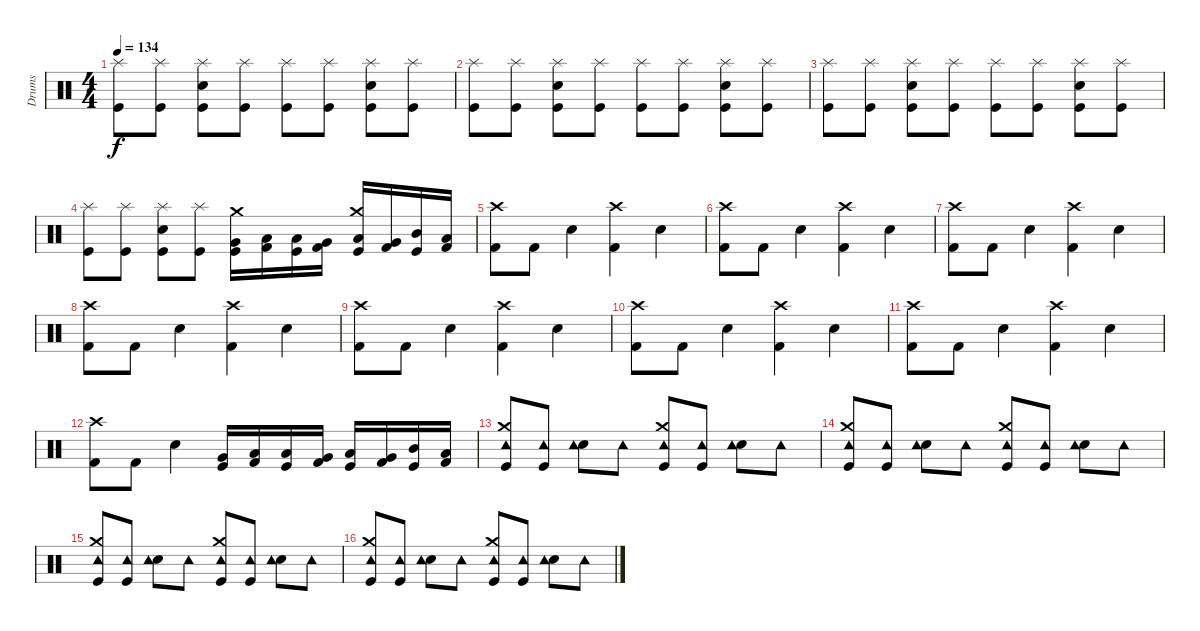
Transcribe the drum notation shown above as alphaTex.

\track ("Drums" "Drums") {instrument percussion}
\staff {score}
\articulation defaults
\ts (4 4)
\tempo 134
\clef neutral
\ks c
("Splash (hit)" "Kick (hit)").8{dy f} ("Splash (hit)" "Kick (hit)").8 ("Splash (hit)" "Kick (hit)" "Electric Snare (hit)").8 ("Splash (hit)" "Kick (hit)").8 ("Kick (hit)" "Splash (hit)").8 ("Splash (hit)" "Kick (hit)").8 ("Splash (hit)" "Kick (hit)" "Electric Snare (hit)").8 ("Splash (hit)" "Kick (hit)").8 |
("Splash (hit)" "Kick (hit)").8 ("Splash (hit)" "Kick (hit)").8 ("Splash (hit)" "Kick (hit)" "Electric Snare (hit)").8 ("Splash (hit)" "Kick (hit)").8 ("Kick (hit)" "Splash (hit)").8 ("Splash (hit)" "Kick (hit)").8 ("Splash (hit)" "Kick (hit)" "Electric Snare (hit)").8 ("Splash (hit)" "Kick (hit)").8 |
("Splash (hit)" "Kick (hit)").8 ("Splash (hit)" "Kick (hit)").8 ("Splash (hit)" "Kick (hit)" "Electric Snare (hit)").8 ("Splash (hit)" "Kick (hit)").8 ("Kick (hit)" "Splash (hit)").8 ("Splash (hit)" "Kick (hit)").8 ("Splash (hit)" "Kick (hit)" "Electric Snare (hit)").8 ("Splash (hit)" "Kick (hit)").8 |
("Splash (hit)" "Kick (hit)").8 ("Splash (hit)" "Kick (hit)").8 ("Splash (hit)" "Kick (hit)" "Electric Snare (hit)").8 ("Splash (hit)" "Kick (hit)").8 ("Very Low Tom (hit)" "Kick (hit)" "Crash medium (hit)").16 ("Kick (hit) 2" "Low Floor Tom (hit)").16 ("Kick (hit)" "Low Tom (hit)").16 ("Kick (hit) 2" "Very Low Tom (hit)").16 ("Kick (hit)" "Low Tom (hit)" "Crash medium (hit)").16 ("Kick (hit) 2" "Very Low Tom (hit)").16 ("Kick (hit)" "Mid Tom (hit)").16 ("Kick (hit) 2" "Low Tom (hit)").16 |
("Crash high (hit)" "Kick (hit) 2").8 "Kick (hit) 2".8 "Electric Snare (hit)".4 ("Kick (hit) 2" "Crash high (hit)").4 "Electric Snare (hit)".4 |
("Kick (hit) 2" "Crash high (hit)").8 "Kick (hit) 2".8 "Electric Snare (hit)".4 ("Kick (hit) 2" "Crash high (hit)").4 "Electric Snare (hit)".4 |
("Crash high (hit)" "Kick (hit) 2").8 "Kick (hit) 2".8 "Electric Snare (hit)".4 ("Kick (hit) 2" "Crash high (hit)").4 "Electric Snare (hit)".4 |
("Kick (hit) 2" "Crash high (hit)").8 "Kick (hit) 2".8 "Electric Snare (hit)".4 ("Kick (hit) 2" "Crash high (hit)").4 "Electric Snare (hit)".4 |
("Crash high (hit)" "Kick (hit) 2").8 "Kick (hit) 2".8 "Electric Snare (hit)".4 ("Kick (hit) 2" "Crash high (hit)").4 "Electric Snare (hit)".4 |
("Kick (hit) 2" "Crash high (hit)").8 "Kick (hit) 2".8 "Electric Snare (hit)".4 ("Kick (hit) 2" "Crash high (hit)").4 "Electric Snare (hit)".4 |
("Crash high (hit)" "Kick (hit) 2").8 "Kick (hit) 2".8 "Electric Snare (hit)".4 ("Kick (hit) 2" "Crash high (hit)").4 "Electric Snare (hit)".4 |
("Kick (hit) 2" "Crash high (hit)").8 "Kick (hit) 2".8 "Electric Snare (hit)".4 ("Very Low Tom (hit)" "Kick (hit)").16 ("Kick (hit) 2" "Low Floor Tom (hit)").16 ("Kick (hit)" "Low Tom (hit)").16 ("Kick (hit) 2" "Very Low Tom (hit)").16 ("Kick (hit)" "Low Tom (hit)").16 ("Kick (hit) 2" "Very Low Tom (hit)").16 ("Kick (hit)" "Mid Tom (hit)").16 ("Kick (hit) 2" "Low Tom (hit)").16 |
("Kick (hit)" "Tambourine (hit)" "Crash medium (hit)").8 ("Kick (hit)" "Tambourine (hit)").8 ("Electric Snare (hit)" "Tambourine (hit)").8 "Tambourine (hit)".8 ("Kick (hit)" "Tambourine (hit)" "Crash medium (hit)").8 ("Kick (hit)" "Tambourine (hit)").8 ("Electric Snare (hit)" "Tambourine (hit)").8 "Tambourine (hit)".8 |
("Crash medium (hit)" "Tambourine (hit)" "Kick (hit)").8 ("Kick (hit)" "Tambourine (hit)").8 ("Electric Snare (hit)" "Tambourine (hit)").8 "Tambourine (hit)".8 ("Kick (hit)" "Tambourine (hit)" "Crash medium (hit)").8 ("Kick (hit)" "Tambourine (hit)").8 ("Electric Snare (hit)" "Tambourine (hit)").8 "Tambourine (hit)".8 |
("Crash medium (hit)" "Tambourine (hit)" "Kick (hit)").8 ("Kick (hit)" "Tambourine (hit)").8 ("Electric Snare (hit)" "Tambourine (hit)").8 "Tambourine (hit)".8 ("Kick (hit)" "Tambourine (hit)" "Crash medium (hit)").8 ("Kick (hit)" "Tambourine (hit)").8 ("Electric Snare (hit)" "Tambourine (hit)").8 "Tambourine (hit)".8 |
("Crash medium (hit)" "Tambourine (hit)" "Kick (hit)").8 ("Kick (hit)" "Tambourine (hit)").8 ("Electric Snare (hit)" "Tambourine (hit)").8 "Tambourine (hit)".8 ("Kick (hit)" "Tambourine (hit)" "Crash medium (hit)").8 ("Kick (hit)" "Tambourine (hit)").8 ("Electric Snare (hit)" "Tambourine (hit)").8 "Tambourine (hit)".8
